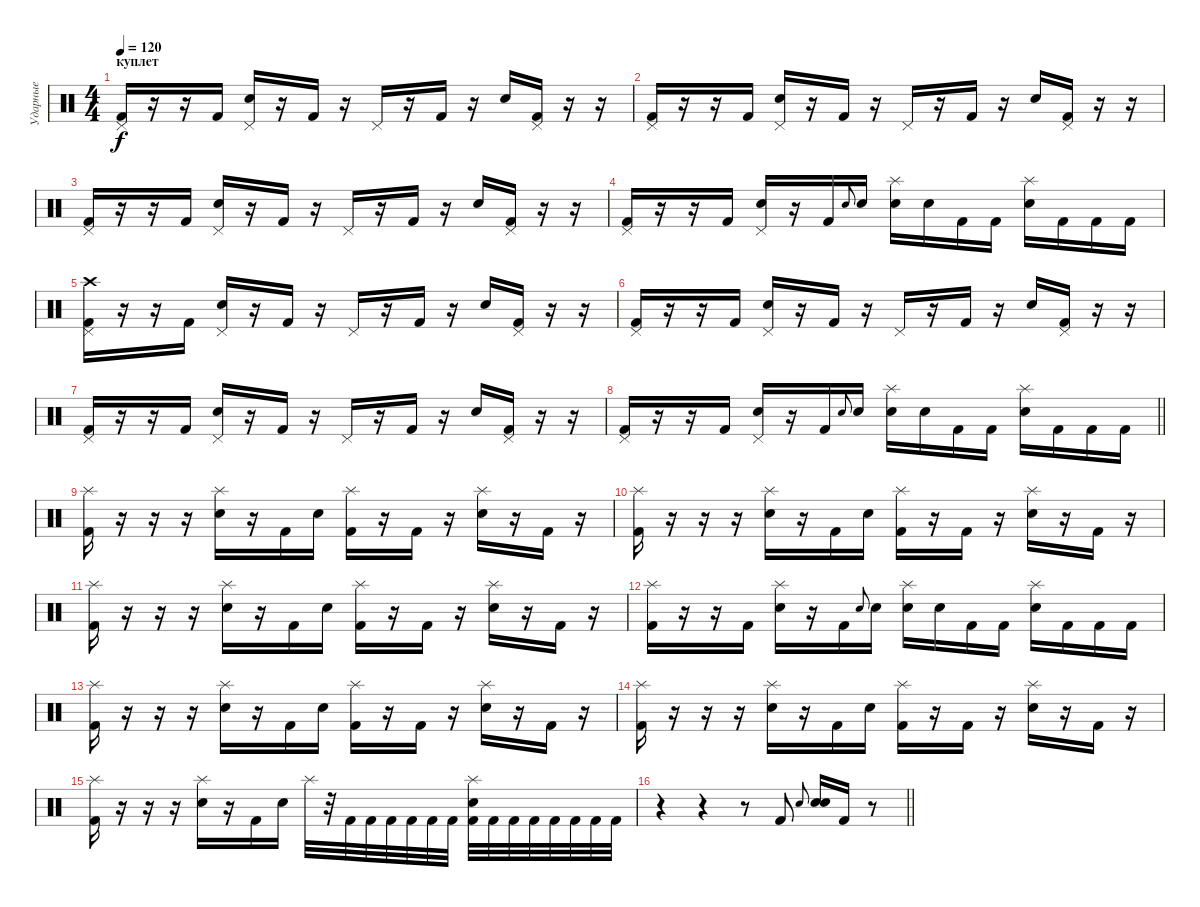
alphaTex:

\track ("Ударные" "Ударные") {instrument percussion}
\staff {score}
\articulation defaults
\ts (4 4)
\section ("" "куплет")
\tempo 120
\clef neutral
\ks c
("Pedal Hi-Hat (hit)" "Kick (hit) 2").16{dy f} r.16 r.16 "Kick (hit) 2".16 ("Pedal Hi-Hat (hit)" "Electric Snare (hit)").16 r.16 "Kick (hit) 2".16 r.16 "Pedal Hi-Hat (hit)".16 r.16 "Kick (hit) 2".16 r.16 "Electric Snare (hit)".16 ("Pedal Hi-Hat (hit)" "Kick (hit) 2").16 r.16 r.16 |
("Pedal Hi-Hat (hit)" "Kick (hit) 2").16 r.16 r.16 "Kick (hit) 2".16 ("Pedal Hi-Hat (hit)" "Electric Snare (hit)").16 r.16 "Kick (hit) 2".16 r.16 "Pedal Hi-Hat (hit)".16 r.16 "Kick (hit) 2".16 r.16 "Electric Snare (hit)".16 ("Pedal Hi-Hat (hit)" "Kick (hit) 2").16 r.16 r.16 |
("Pedal Hi-Hat (hit)" "Kick (hit) 2").16 r.16 r.16 "Kick (hit) 2".16 ("Pedal Hi-Hat (hit)" "Electric Snare (hit)").16 r.16 "Kick (hit) 2".16 r.16 "Pedal Hi-Hat (hit)".16 r.16 "Kick (hit) 2".16 r.16 "Electric Snare (hit)".16 ("Pedal Hi-Hat (hit)" "Kick (hit) 2").16 r.16 r.16 |
("Pedal Hi-Hat (hit)" "Kick (hit) 2").16 r.16 r.16 "Kick (hit) 2".16 ("Pedal Hi-Hat (hit)" "Electric Snare (hit)").16 r.16 "Kick (hit) 2".16 "Electric Snare (hit)".8{gr onbeat} "Electric Snare (hit)".16 ("Splash (hit)" "Electric Snare (hit)").16 "Electric Snare (hit)".16 "Kick (hit) 2".16 "Kick (hit) 2".16 ("Splash (hit)" "Electric Snare (hit)").16 "Kick (hit) 2".16 "Kick (hit) 2".16 "Kick (hit) 2".16 |
("Crash high (hit)" "Pedal Hi-Hat (hit)" "Kick (hit) 2").16 r.16 r.16 "Kick (hit) 2".16 ("Pedal Hi-Hat (hit)" "Electric Snare (hit)").16 r.16 "Kick (hit) 2".16 r.16 "Pedal Hi-Hat (hit)".16 r.16 "Kick (hit) 2".16 r.16 "Electric Snare (hit)".16 ("Pedal Hi-Hat (hit)" "Kick (hit) 2").16 r.16 r.16 |
("Pedal Hi-Hat (hit)" "Kick (hit) 2").16 r.16 r.16 "Kick (hit) 2".16 ("Pedal Hi-Hat (hit)" "Electric Snare (hit)").16 r.16 "Kick (hit) 2".16 r.16 "Pedal Hi-Hat (hit)".16 r.16 "Kick (hit) 2".16 r.16 "Electric Snare (hit)".16 ("Pedal Hi-Hat (hit)" "Kick (hit) 2").16 r.16 r.16 |
("Pedal Hi-Hat (hit)" "Kick (hit) 2").16 r.16 r.16 "Kick (hit) 2".16 ("Pedal Hi-Hat (hit)" "Electric Snare (hit)").16 r.16 "Kick (hit) 2".16 r.16 "Pedal Hi-Hat (hit)".16 r.16 "Kick (hit) 2".16 r.16 "Electric Snare (hit)".16 ("Pedal Hi-Hat (hit)" "Kick (hit) 2").16 r.16 r.16 |
\barLineRight lightlight
("Pedal Hi-Hat (hit)" "Kick (hit) 2").16 r.16 r.16 "Kick (hit) 2".16 ("Pedal Hi-Hat (hit)" "Electric Snare (hit)").16 r.16 "Kick (hit) 2".16 "Electric Snare (hit)".8{gr onbeat} "Electric Snare (hit)".16 ("Splash (hit)" "Electric Snare (hit)").16 "Electric Snare (hit)".16 "Kick (hit) 2".16 "Kick (hit) 2".16 ("Splash (hit)" "Electric Snare (hit)").16 "Kick (hit) 2".16 "Kick (hit) 2".16 "Kick (hit) 2".16 |
\section ("" "")
("Splash (hit)" "Kick (hit) 2").16 r.16 r.16 r.16 ("Splash (hit)" "Electric Snare (hit)").16 r.16 "Kick (hit) 2".16 "Electric Snare (hit)".16 ("Splash (hit)" "Kick (hit) 2").16 r.16 "Kick (hit) 2".16 r.16 ("Splash (hit)" "Electric Snare (hit)").16 r.16 "Kick (hit) 2".16 r.16 |
("Splash (hit)" "Kick (hit) 2").16 r.16 r.16 r.16 ("Splash (hit)" "Electric Snare (hit)").16 r.16 "Kick (hit) 2".16 "Electric Snare (hit)".16 ("Splash (hit)" "Kick (hit) 2").16 r.16 "Kick (hit) 2".16 r.16 ("Splash (hit)" "Electric Snare (hit)").16 r.16 "Kick (hit) 2".16 r.16 |
("Splash (hit)" "Kick (hit) 2").16 r.16 r.16 r.16 ("Splash (hit)" "Electric Snare (hit)").16 r.16 "Kick (hit) 2".16 "Electric Snare (hit)".16 ("Splash (hit)" "Kick (hit) 2").16 r.16 "Kick (hit) 2".16 r.16 ("Splash (hit)" "Electric Snare (hit)").16 r.16 "Kick (hit) 2".16 r.16 |
("Splash (hit)" "Kick (hit) 2").16 r.16 r.16 "Kick (hit) 2".16 ("Splash (hit)" "Electric Snare (hit)").16 r.16 "Kick (hit) 2".16 "Electric Snare (hit)".8{gr onbeat} "Electric Snare (hit)".16 ("Splash (hit)" "Electric Snare (hit)").16 "Electric Snare (hit)".16 "Kick (hit) 2".16 "Kick (hit) 2".16 ("Splash (hit)" "Electric Snare (hit)").16 "Kick (hit) 2".16 "Kick (hit) 2".16 "Kick (hit) 2".16 |
("Splash (hit)" "Kick (hit) 2").16 r.16 r.16 r.16 ("Splash (hit)" "Electric Snare (hit)").16 r.16 "Kick (hit) 2".16 "Electric Snare (hit)".16 ("Splash (hit)" "Kick (hit) 2").16 r.16 "Kick (hit) 2".16 r.16 ("Splash (hit)" "Electric Snare (hit)").16 r.16 "Kick (hit) 2".16 r.16 |
("Splash (hit)" "Kick (hit) 2").16 r.16 r.16 r.16 ("Splash (hit)" "Electric Snare (hit)").16 r.16 "Kick (hit) 2".16 "Electric Snare (hit)".16 ("Splash (hit)" "Kick (hit) 2").16 r.16 "Kick (hit) 2".16 r.16 ("Splash (hit)" "Electric Snare (hit)").16 r.16 "Kick (hit) 2".16 r.16 |
("Splash (hit)" "Kick (hit) 2").16 r.16 r.16 r.16 ("Splash (hit)" "Electric Snare (hit)").16 r.16 "Kick (hit) 2".16 "Electric Snare (hit)".16 "Splash (hit)".32 r.32 "Kick (hit) 2".32 "Kick (hit) 2".32 "Kick (hit) 2".32 "Kick (hit) 2".32 "Kick (hit) 2".32 "Kick (hit) 2".32 ("Splash (hit)" "Electric Snare (hit)" "Kick (hit) 2").32 "Kick (hit) 2".32 "Kick (hit) 2".32 "Kick (hit) 2".32 "Kick (hit) 2".32 "Kick (hit) 2".32 "Kick (hit) 2".32 "Kick (hit) 2".32 |
\barLineRight lightlight
r.4 r.4 r.8 "Kick (hit) 2".8 "Electric Snare (hit)".8{gr onbeat} ("Electric Snare (hit)" "Electric Snare (hit)").16 "Kick (hit) 2".16 r.8
